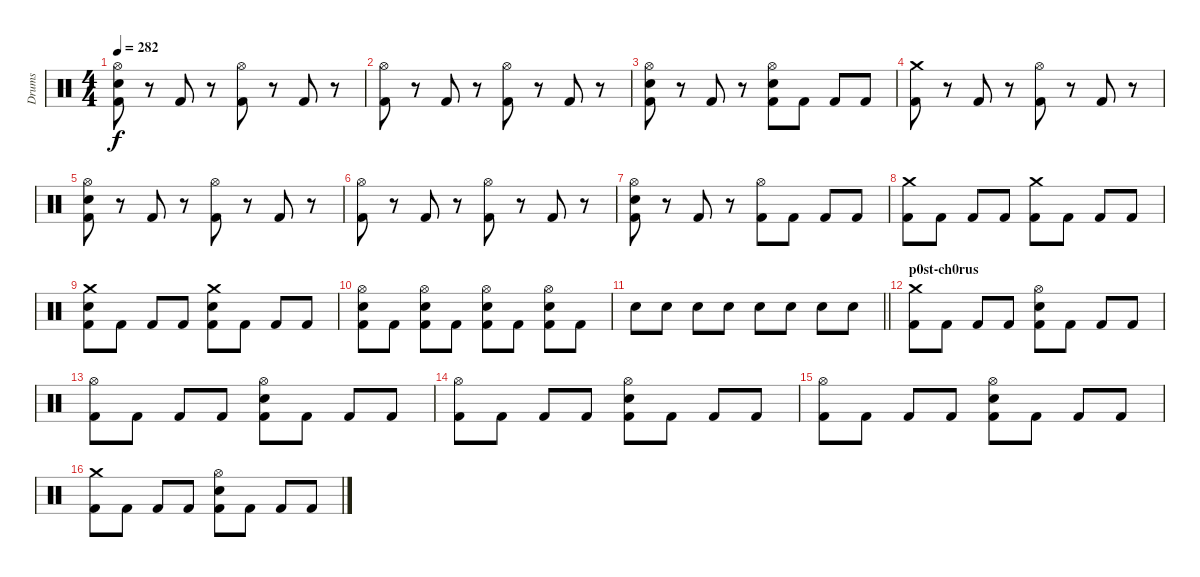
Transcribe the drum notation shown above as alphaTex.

\track ("Drums" "Drums") {instrument percussion}
\staff {score}
\articulation defaults
\ts (4 4)
\tempo 282
\clef neutral
\ks c
("Hi-Hat (open)" "Snare (hit) 2" "Kick (hit) 2").8{dy f} r.8 "Kick (hit) 2".8 r.8 ("Hi-Hat (open)" "Kick (hit) 2").8 r.8 "Kick (hit) 2".8 r.8 |
("Hi-Hat (open)" "Kick (hit) 2").8 r.8 "Kick (hit) 2".8 r.8 ("Hi-Hat (open)" "Kick (hit) 2").8 r.8 "Kick (hit) 2".8 r.8 |
("Hi-Hat (open)" "Snare (hit) 2" "Kick (hit) 2").8 r.8 "Kick (hit) 2".8 r.8 ("Hi-Hat (open)" "Snare (hit) 2" "Kick (hit) 2").8 "Kick (hit) 2".8 "Kick (hit) 2".8 "Kick (hit) 2".8 |
("Crash medium (hit)" "Kick (hit) 2").8 r.8 "Kick (hit) 2".8 r.8 ("Hi-Hat (open)" "Kick (hit) 2").8 r.8 "Kick (hit) 2".8 r.8 |
("Hi-Hat (open)" "Snare (hit) 2" "Kick (hit) 2").8 r.8 "Kick (hit) 2".8 r.8 ("Hi-Hat (open)" "Kick (hit) 2").8 r.8 "Kick (hit) 2".8 r.8 |
("Hi-Hat (open)" "Kick (hit) 2").8 r.8 "Kick (hit) 2".8 r.8 ("Hi-Hat (open)" "Kick (hit) 2").8 r.8 "Kick (hit) 2".8 r.8 |
("Hi-Hat (open)" "Snare (hit) 2" "Kick (hit) 2").8 r.8 "Kick (hit) 2".8 r.8 ("Hi-Hat (open)" "Kick (hit) 2").8 "Kick (hit) 2".8 "Kick (hit) 2".8 "Kick (hit) 2".8 |
("Crash medium (hit)" "Kick (hit) 2").8 "Kick (hit) 2".8 "Kick (hit) 2".8 "Kick (hit) 2".8 ("Crash medium (hit)" "Kick (hit) 2").8 "Kick (hit) 2".8 "Kick (hit) 2".8 "Kick (hit) 2".8 |
("Crash medium (hit)" "Snare (hit) 2" "Kick (hit) 2").8 "Kick (hit) 2".8 "Kick (hit) 2".8 "Kick (hit) 2".8 ("Crash medium (hit)" "Snare (hit) 2" "Kick (hit) 2").8 "Kick (hit) 2".8 "Kick (hit) 2".8 "Kick (hit) 2".8 |
("Hi-Hat (open)" "Snare (hit) 2" "Kick (hit) 2").8 "Kick (hit) 2".8 ("Hi-Hat (open)" "Snare (hit) 2" "Kick (hit) 2").8 "Kick (hit) 2".8 ("Hi-Hat (open)" "Snare (hit) 2" "Kick (hit) 2").8 "Kick (hit) 2".8 ("Hi-Hat (open)" "Snare (hit) 2" "Kick (hit) 2").8 "Kick (hit) 2".8 |
\barLineRight lightlight "Snare (hit) 2".8 "Snare (hit) 2".8 "Snare (hit) 2".8 "Snare (hit) 2".8 "Snare (hit) 2".8 "Snare (hit) 2".8 "Snare (hit) 2".8 "Snare (hit) 2".8
|
\section ("" "p0st-ch0rus")
("Crash medium (hit)" "Kick (hit) 2").8 "Kick (hit) 2".8 "Kick (hit) 2".8 "Kick (hit) 2".8 ("Hi-Hat (open)" "Snare (hit) 2" "Kick (hit) 2").8 "Kick (hit) 2".8 "Kick (hit) 2".8 "Kick (hit) 2".8 |
("Hi-Hat (open)" "Kick (hit) 2").8 "Kick (hit) 2".8 "Kick (hit) 2".8 "Kick (hit) 2".8 ("Hi-Hat (open)" "Snare (hit) 2" "Kick (hit) 2").8 "Kick (hit) 2".8 "Kick (hit) 2".8 "Kick (hit) 2".8 |
("Hi-Hat (open)" "Kick (hit) 2").8 "Kick (hit) 2".8 "Kick (hit) 2".8 "Kick (hit) 2".8 ("Hi-Hat (open)" "Snare (hit) 2" "Kick (hit) 2").8 "Kick (hit) 2".8 "Kick (hit) 2".8 "Kick (hit) 2".8 |
("Hi-Hat (open)" "Kick (hit) 2").8 "Kick (hit) 2".8 "Kick (hit) 2".8 "Kick (hit) 2".8 ("Hi-Hat (open)" "Snare (hit) 2" "Kick (hit) 2").8 "Kick (hit) 2".8 "Kick (hit) 2".8 "Kick (hit) 2".8 |
("Crash medium (hit)" "Kick (hit) 2").8 "Kick (hit) 2".8 "Kick (hit) 2".8 "Kick (hit) 2".8 ("Hi-Hat (open)" "Snare (hit) 2" "Kick (hit) 2").8 "Kick (hit) 2".8 "Kick (hit) 2".8 "Kick (hit) 2".8
